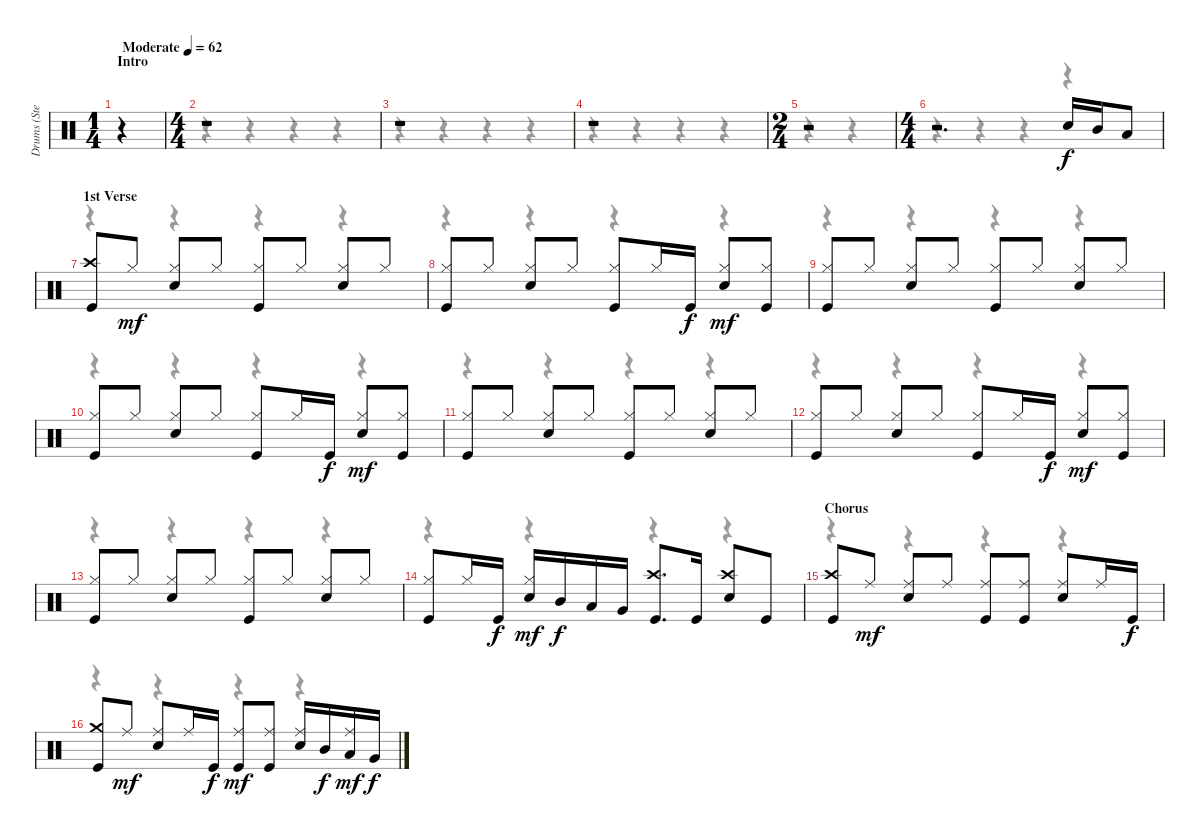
\track ("Drums (Steven)" "Drums (Ste") {instrument percussion}
\staff {score}
\articulation defaults
\voice
\ts (1 4)
\section ("" "Intro")
\tempo (62 "Moderate")
\clef neutral
\ks c
r.4{dy f} |
\ts (4 4)
r.1 |
r.1 |
r.1 |
\ts (2 4)
r.2 |
\ts (4 4)
r.2{d} "Snare (hit) 2".16 "Mid Tom (hit)".16 "Low Tom (hit)".8 |
\section ("" "1st Verse")
("Crash high (hit)" "Kick (hit)").8 "Hi-Hat (closed)".8{dy mf} ("Hi-Hat (closed)" "Snare (hit) 2").8 "Hi-Hat (closed)".8 ("Hi-Hat (closed)" "Kick (hit)").8 "Hi-Hat (closed)".8 ("Hi-Hat (closed)" "Snare (hit) 2").8 "Hi-Hat (closed)".8 |
("Hi-Hat (closed)" "Kick (hit)").8 "Hi-Hat (closed)".8 ("Hi-Hat (closed)" "Snare (hit) 2").8 "Hi-Hat (closed)".8 ("Hi-Hat (closed)" "Kick (hit)").8 "Hi-Hat (closed)".16 "Kick (hit)".16{dy f} ("Hi-Hat (closed)" "Snare (hit) 2").8{dy mf} ("Hi-Hat (closed)" "Kick (hit)").8 |
("Hi-Hat (closed)" "Kick (hit)").8 "Hi-Hat (closed)".8 ("Hi-Hat (closed)" "Snare (hit) 2").8 "Hi-Hat (closed)".8 ("Hi-Hat (closed)" "Kick (hit)").8 "Hi-Hat (closed)".8 ("Hi-Hat (closed)" "Snare (hit) 2").8 "Hi-Hat (closed)".8 |
("Hi-Hat (closed)" "Kick (hit)").8 "Hi-Hat (closed)".8 ("Hi-Hat (closed)" "Snare (hit) 2").8 "Hi-Hat (closed)".8 ("Hi-Hat (closed)" "Kick (hit)").8 "Hi-Hat (closed)".16 "Kick (hit)".16{dy f} ("Hi-Hat (closed)" "Snare (hit) 2").8{dy mf} ("Hi-Hat (closed)" "Kick (hit)").8 |
("Hi-Hat (closed)" "Kick (hit)").8 "Hi-Hat (closed)".8 ("Hi-Hat (closed)" "Snare (hit) 2").8 "Hi-Hat (closed)".8 ("Hi-Hat (closed)" "Kick (hit)").8 "Hi-Hat (closed)".8 ("Hi-Hat (closed)" "Snare (hit) 2").8 "Hi-Hat (closed)".8 |
("Hi-Hat (closed)" "Kick (hit)").8 "Hi-Hat (closed)".8 ("Hi-Hat (closed)" "Snare (hit) 2").8 "Hi-Hat (closed)".8 ("Hi-Hat (closed)" "Kick (hit)").8 "Hi-Hat (closed)".16 "Kick (hit)".16{dy f} ("Hi-Hat (closed)" "Snare (hit) 2").8{dy mf} ("Hi-Hat (closed)" "Kick (hit)").8 |
("Hi-Hat (closed)" "Kick (hit)").8 "Hi-Hat (closed)".8 ("Hi-Hat (closed)" "Snare (hit) 2").8 "Hi-Hat (closed)".8 ("Hi-Hat (closed)" "Kick (hit)").8 "Hi-Hat (closed)".8 ("Hi-Hat (closed)" "Snare (hit) 2").8 "Hi-Hat (closed)".8 |
("Hi-Hat (closed)" "Kick (hit)").8 "Hi-Hat (closed)".16 "Kick (hit)".16{dy f} ("Hi-Hat (closed)" "Snare (hit) 2").16{dy mf} "Mid Tom (hit)".16{dy f} "Low Tom (hit)".16 "Very Low Tom (hit)".16 ("Crash high (hit)" "Kick (hit)").8{d} "Kick (hit)".16 ("Crash high (hit)" "Snare (hit) 2").8 "Kick (hit)".8 |
\section ("" "Chorus")
("Crash high (hit)" "Kick (hit)").8 "Ride (middle)".8{dy mf} ("Ride (middle)" "Snare (hit) 2").8 "Ride (middle)".8 ("Ride (middle)" "Kick (hit)").8 ("Ride (middle)" "Kick (hit)").8 ("Ride (middle)" "Snare (hit) 2").8 "Ride (middle)".16 "Kick (hit)".16{dy f} |
("Crash medium (hit)" "Kick (hit)").8 "Ride (middle)".8{dy mf} ("Ride (middle)" "Snare (hit) 2").8 "Ride (middle)".16 "Kick (hit)".16{dy f} ("Ride (middle)" "Kick (hit)").8{dy mf} ("Ride (middle)" "Kick (hit)").8 ("Ride (middle)" "Snare (hit) 2").16 "Mid Tom (hit)".16{dy f} ("Ride (middle)" "Low Tom (hit)").16{dy mf} "Very Low Tom (hit)".16{dy f}
\voice
\clef neutral
\ottava regular
\simile none
\ks c
r.4{dy f} |
r.4 r.4 r.4 r.4 |
r.4 r.4 r.4 r.4 |
r.4 r.4 r.4 r.4 |
r.4 r.4 |
r.4 r.4 r.4 r.4 |
r.4 r.4 r.4 r.4 |
r.4 r.4 r.4 r.4 |
r.4 r.4 r.4 r.4 |
r.4 r.4 r.4 r.4 |
r.4 r.4 r.4 r.4 |
r.4 r.4 r.4 r.4 |
r.4 r.4 r.4 r.4 |
r.4 r.4 r.4 r.4 |
r.4 r.4 r.4 r.4 |
r.4 r.4 r.4 r.4
